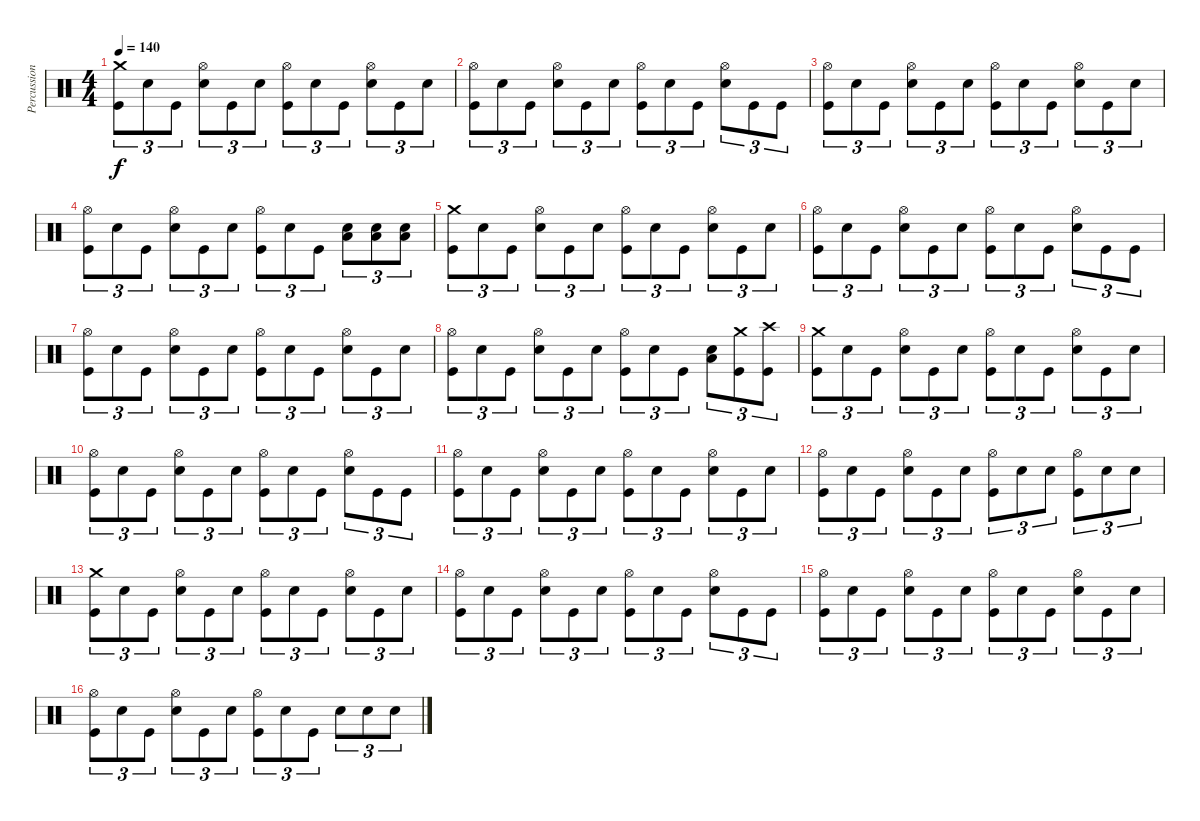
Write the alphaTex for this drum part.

\track ("Percussions" "Percussion") {instrument percussion}
\staff {score}
\articulation defaults
\ts (4 4)
\tempo 140
\clef neutral
\ks c
("Crash medium (hit)" "Kick (hit)").8{tu (3 2) dy f} "Snare (hit)".8{tu (3 2)} "Kick (hit)".8{tu (3 2)} ("Hi-Hat (open)" "Electric Snare (hit)").8{tu (3 2)} "Kick (hit)".8{tu (3 2)} "Snare (hit)".8{tu (3 2)} ("Hi-Hat (open)" "Kick (hit)").8{tu (3 2)} "Snare (hit)".8{tu (3 2)} "Kick (hit)".8{tu (3 2)} ("Hi-Hat (open)" "Electric Snare (hit)").8{tu (3 2)} "Kick (hit)".8{tu (3 2)} "Snare (hit)".8{tu (3 2)} |
("Hi-Hat (open)" "Kick (hit)").8{tu (3 2)} "Snare (hit)".8{tu (3 2)} "Kick (hit)".8{tu (3 2)} ("Hi-Hat (open)" "Electric Snare (hit)").8{tu (3 2)} "Kick (hit)".8{tu (3 2)} "Snare (hit)".8{tu (3 2)} ("Hi-Hat (open)" "Kick (hit)").8{tu (3 2)} "Snare (hit)".8{tu (3 2)} "Kick (hit)".8{tu (3 2)} ("Hi-Hat (open)" "Electric Snare (hit)").8{tu (3 2)} "Kick (hit)".8{tu (3 2)} "Kick (hit)".8{tu (3 2)} |
("Hi-Hat (open)" "Kick (hit)").8{tu (3 2)} "Snare (hit)".8{tu (3 2)} "Kick (hit)".8{tu (3 2)} ("Hi-Hat (open)" "Electric Snare (hit)").8{tu (3 2)} "Kick (hit)".8{tu (3 2)} "Snare (hit)".8{tu (3 2)} ("Hi-Hat (open)" "Kick (hit)").8{tu (3 2)} "Snare (hit)".8{tu (3 2)} "Kick (hit)".8{tu (3 2)} ("Hi-Hat (open)" "Electric Snare (hit)").8{tu (3 2)} "Kick (hit)".8{tu (3 2)} "Snare (hit)".8{tu (3 2)} |
("Hi-Hat (open)" "Kick (hit)").8{tu (3 2)} "Snare (hit)".8{tu (3 2)} "Kick (hit)".8{tu (3 2)} ("Hi-Hat (open)" "Electric Snare (hit)").8{tu (3 2)} "Kick (hit)".8{tu (3 2)} "Snare (hit)".8{tu (3 2)} ("Hi-Hat (open)" "Kick (hit)").8{tu (3 2)} "Snare (hit)".8{tu (3 2)} "Kick (hit)".8{tu (3 2)} ("Low Floor Tom (hit)" "Electric Snare (hit)").8{tu (3 2)} ("Low Floor Tom (hit)" "Electric Snare (hit)").8{tu (3 2)} ("Low Floor Tom (hit)" "Electric Snare (hit)").8{tu (3 2)} |
("Crash medium (hit)" "Kick (hit)").8{tu (3 2)} "Snare (hit)".8{tu (3 2)} "Kick (hit)".8{tu (3 2)} ("Hi-Hat (open)" "Electric Snare (hit)").8{tu (3 2)} "Kick (hit)".8{tu (3 2)} "Snare (hit)".8{tu (3 2)} ("Hi-Hat (open)" "Kick (hit)").8{tu (3 2)} "Snare (hit)".8{tu (3 2)} "Kick (hit)".8{tu (3 2)} ("Hi-Hat (open)" "Electric Snare (hit)").8{tu (3 2)} "Kick (hit)".8{tu (3 2)} "Snare (hit)".8{tu (3 2)} |
("Hi-Hat (open)" "Kick (hit)").8{tu (3 2)} "Snare (hit)".8{tu (3 2)} "Kick (hit)".8{tu (3 2)} ("Hi-Hat (open)" "Electric Snare (hit)").8{tu (3 2)} "Kick (hit)".8{tu (3 2)} "Snare (hit)".8{tu (3 2)} ("Hi-Hat (open)" "Kick (hit)").8{tu (3 2)} "Snare (hit)".8{tu (3 2)} "Kick (hit)".8{tu (3 2)} ("Hi-Hat (open)" "Electric Snare (hit)").8{tu (3 2)} "Kick (hit)".8{tu (3 2)} "Kick (hit)".8{tu (3 2)} |
("Hi-Hat (open)" "Kick (hit)").8{tu (3 2)} "Snare (hit)".8{tu (3 2)} "Kick (hit)".8{tu (3 2)} ("Hi-Hat (open)" "Electric Snare (hit)").8{tu (3 2)} "Kick (hit)".8{tu (3 2)} "Snare (hit)".8{tu (3 2)} ("Hi-Hat (open)" "Kick (hit)").8{tu (3 2)} "Snare (hit)".8{tu (3 2)} "Kick (hit)".8{tu (3 2)} ("Hi-Hat (open)" "Electric Snare (hit)").8{tu (3 2)} "Kick (hit)".8{tu (3 2)} "Snare (hit)".8{tu (3 2)} |
("Hi-Hat (open)" "Kick (hit)").8{tu (3 2)} "Snare (hit)".8{tu (3 2)} "Kick (hit)".8{tu (3 2)} ("Hi-Hat (open)" "Electric Snare (hit)").8{tu (3 2)} "Kick (hit)".8{tu (3 2)} "Snare (hit)".8{tu (3 2)} ("Hi-Hat (open)" "Kick (hit)").8{tu (3 2)} "Snare (hit)".8{tu (3 2)} "Kick (hit)".8{tu (3 2)} ("Low Floor Tom (hit)" "Electric Snare (hit)").8{tu (3 2)} ("Crash medium (hit)" "Kick (hit)").8{tu (3 2)} ("Crash high (hit)" "Kick (hit)").8{tu (3 2)} |
("Crash medium (hit)" "Kick (hit)").8{tu (3 2)} "Snare (hit)".8{tu (3 2)} "Kick (hit)".8{tu (3 2)} ("Hi-Hat (open)" "Electric Snare (hit)").8{tu (3 2)} "Kick (hit)".8{tu (3 2)} "Snare (hit)".8{tu (3 2)} ("Hi-Hat (open)" "Kick (hit)").8{tu (3 2)} "Snare (hit)".8{tu (3 2)} "Kick (hit)".8{tu (3 2)} ("Hi-Hat (open)" "Electric Snare (hit)").8{tu (3 2)} "Kick (hit)".8{tu (3 2)} "Snare (hit)".8{tu (3 2)} |
("Hi-Hat (open)" "Kick (hit)").8{tu (3 2)} "Snare (hit)".8{tu (3 2)} "Kick (hit)".8{tu (3 2)} ("Hi-Hat (open)" "Electric Snare (hit)").8{tu (3 2)} "Kick (hit)".8{tu (3 2)} "Snare (hit)".8{tu (3 2)} ("Hi-Hat (open)" "Kick (hit)").8{tu (3 2)} "Snare (hit)".8{tu (3 2)} "Kick (hit)".8{tu (3 2)} ("Hi-Hat (open)" "Electric Snare (hit)").8{tu (3 2)} "Kick (hit)".8{tu (3 2)} "Kick (hit)".8{tu (3 2)} |
("Hi-Hat (open)" "Kick (hit)").8{tu (3 2)} "Snare (hit)".8{tu (3 2)} "Kick (hit)".8{tu (3 2)} ("Hi-Hat (open)" "Electric Snare (hit)").8{tu (3 2)} "Kick (hit)".8{tu (3 2)} "Snare (hit)".8{tu (3 2)} ("Hi-Hat (open)" "Kick (hit)").8{tu (3 2)} "Snare (hit)".8{tu (3 2)} "Kick (hit)".8{tu (3 2)} ("Hi-Hat (open)" "Electric Snare (hit)").8{tu (3 2)} "Kick (hit)".8{tu (3 2)} "Snare (hit)".8{tu (3 2)} |
("Hi-Hat (open)" "Kick (hit)").8{tu (3 2)} "Snare (hit)".8{tu (3 2)} "Kick (hit)".8{tu (3 2)} ("Hi-Hat (open)" "Electric Snare (hit)").8{tu (3 2)} "Kick (hit)".8{tu (3 2)} "Snare (hit)".8{tu (3 2)} ("Hi-Hat (open)" "Kick (hit)").8{tu (3 2)} "Electric Snare (hit)".8{tu (3 2)} "Electric Snare (hit)".8{tu (3 2)} ("Hi-Hat (open)" "Kick (hit)").8{tu (3 2)} "Electric Snare (hit)".8{tu (3 2)} "Electric Snare (hit)".8{tu (3 2)} |
("Crash medium (hit)" "Kick (hit)").8{tu (3 2)} "Snare (hit)".8{tu (3 2)} "Kick (hit)".8{tu (3 2)} ("Hi-Hat (open)" "Electric Snare (hit)").8{tu (3 2)} "Kick (hit)".8{tu (3 2)} "Snare (hit)".8{tu (3 2)} ("Hi-Hat (open)" "Kick (hit)").8{tu (3 2)} "Snare (hit)".8{tu (3 2)} "Kick (hit)".8{tu (3 2)} ("Hi-Hat (open)" "Electric Snare (hit)").8{tu (3 2)} "Kick (hit)".8{tu (3 2)} "Snare (hit)".8{tu (3 2)} |
("Hi-Hat (open)" "Kick (hit)").8{tu (3 2)} "Snare (hit)".8{tu (3 2)} "Kick (hit)".8{tu (3 2)} ("Hi-Hat (open)" "Electric Snare (hit)").8{tu (3 2)} "Kick (hit)".8{tu (3 2)} "Snare (hit)".8{tu (3 2)} ("Hi-Hat (open)" "Kick (hit)").8{tu (3 2)} "Snare (hit)".8{tu (3 2)} "Kick (hit)".8{tu (3 2)} ("Hi-Hat (open)" "Electric Snare (hit)").8{tu (3 2)} "Kick (hit)".8{tu (3 2)} "Kick (hit)".8{tu (3 2)} |
("Hi-Hat (open)" "Kick (hit)").8{tu (3 2)} "Snare (hit)".8{tu (3 2)} "Kick (hit)".8{tu (3 2)} ("Hi-Hat (open)" "Electric Snare (hit)").8{tu (3 2)} "Kick (hit)".8{tu (3 2)} "Snare (hit)".8{tu (3 2)} ("Hi-Hat (open)" "Kick (hit)").8{tu (3 2)} "Snare (hit)".8{tu (3 2)} "Kick (hit)".8{tu (3 2)} ("Hi-Hat (open)" "Electric Snare (hit)").8{tu (3 2)} "Kick (hit)".8{tu (3 2)} "Snare (hit)".8{tu (3 2)} |
("Hi-Hat (open)" "Kick (hit)").8{tu (3 2)} "Snare (hit)".8{tu (3 2)} "Kick (hit)".8{tu (3 2)} ("Hi-Hat (open)" "Electric Snare (hit)").8{tu (3 2)} "Kick (hit)".8{tu (3 2)} "Snare (hit)".8{tu (3 2)} ("Hi-Hat (open)" "Kick (hit)").8{tu (3 2)} "Snare (hit)".8{tu (3 2)} "Kick (hit)".8{tu (3 2)} "Electric Snare (hit)".8{tu (3 2)} "Electric Snare (hit)".8{tu (3 2)} "Electric Snare (hit)".8{tu (3 2)}
